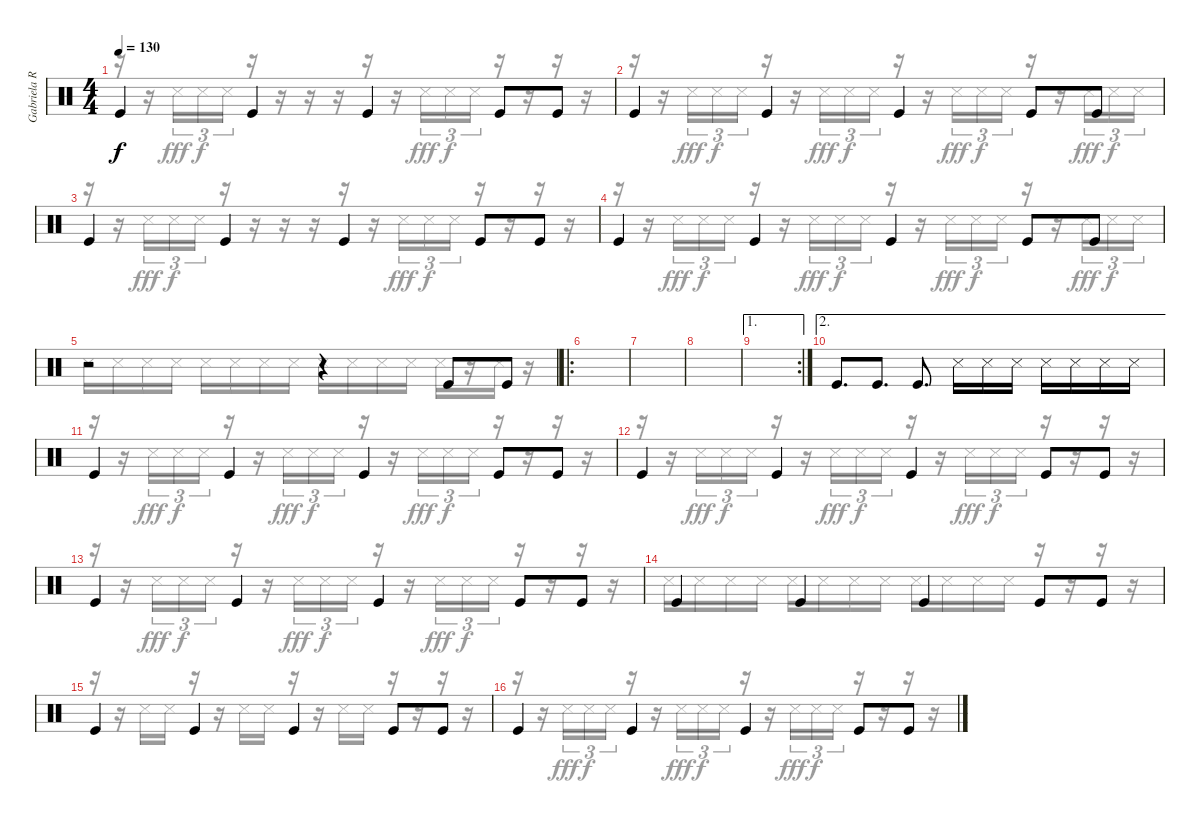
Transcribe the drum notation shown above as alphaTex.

\track ("Gabriela Rythmics" "Gabriela R") {instrument percussion}
\staff {score}
\articulation defaults
\voice
\ts (4 4)
\tempo 130
\clef neutral
\ks c "Kick (hit)".4{dy f} "Kick (hit)".4 "Kick (hit)".4 "Kick (hit)".8 "Kick (hit)".8
|
"Kick (hit)".4 "Kick (hit)".4 "Kick (hit)".4 "Kick (hit)".8 "Kick (hit)".8 |
"Kick (hit)".4 "Kick (hit)".4 "Kick (hit)".4 "Kick (hit)".8 "Kick (hit)".8 |
"Kick (hit)".4 "Kick (hit)".4 "Kick (hit)".4 "Kick (hit)".8 "Kick (hit)".8 |
r.2 r.4 "Kick (hit)".8 "Kick (hit)".8 |
\ro
|
|
|
\ae 1
\rc 2
|
\ae 2 "Kick (hit)".8{d} "Kick (hit)".8{d} "Kick (hit)".8{d} "Snare (side stick) 3".16 "Snare (side stick) 3".16 "Snare (side stick) 3".16 "Snare (side stick) 3".16 "Snare (side stick) 3".16 "Snare (side stick) 3".16 "Snare (side stick) 3".16
|
"Kick (hit)".4 "Kick (hit)".4 "Kick (hit)".4 "Kick (hit)".8 "Kick (hit)".8 |
"Kick (hit)".4 "Kick (hit)".4 "Kick (hit)".4 "Kick (hit)".8 "Kick (hit)".8 |
"Kick (hit)".4 "Kick (hit)".4 "Kick (hit)".4 "Kick (hit)".8 "Kick (hit)".8 |
"Kick (hit)".4 "Kick (hit)".4 "Kick (hit)".4 "Kick (hit)".8 "Kick (hit)".8 |
"Kick (hit)".4 "Kick (hit)".4 "Kick (hit)".4 "Kick (hit)".8 "Kick (hit)".8 |
"Kick (hit)".4 "Kick (hit)".4 "Kick (hit)".4 "Kick (hit)".8 "Kick (hit)".8
\voice
\clef neutral
\ottava regular
\simile none
\ks c
r.16{dy f} r.16 "Snare (side stick) 3".16{tu (3 2) dy fff} "Snare (side stick) 3".16{tu (3 2) dy f} "Snare (side stick) 3".16{tu (3 2)} r.16 r.16 r.16 r.16 r.16 r.16 "Snare (side stick) 3".16{tu (3 2) dy fff} "Snare (side stick) 3".16{tu (3 2) dy f} "Snare (side stick) 3".16{tu (3 2)} r.16 r.16 r.16 r.16 |
r.16 r.16 "Snare (side stick) 3".16{tu (3 2) dy fff} "Snare (side stick) 3".16{tu (3 2) dy f} "Snare (side stick) 3".16{tu (3 2)} r.16 r.16 "Snare (side stick) 3".16{tu (3 2) dy fff} "Snare (side stick) 3".16{tu (3 2) dy f} "Snare (side stick) 3".16{tu (3 2)} r.16 r.16 "Snare (side stick) 3".16{tu (3 2) dy fff} "Snare (side stick) 3".16{tu (3 2) dy f} "Snare (side stick) 3".16{tu (3 2)} r.16 r.16 "Snare (side stick) 3".16{tu (3 2) dy fff} "Snare (side stick) 3".16{tu (3 2) dy f} "Snare (side stick) 3".16{tu (3 2)} |
r.16 r.16 "Snare (side stick) 3".16{tu (3 2) dy fff} "Snare (side stick) 3".16{tu (3 2) dy f} "Snare (side stick) 3".16{tu (3 2)} r.16 r.16 r.16 r.16 r.16 r.16 "Snare (side stick) 3".16{tu (3 2) dy fff} "Snare (side stick) 3".16{tu (3 2) dy f} "Snare (side stick) 3".16{tu (3 2)} r.16 r.16 r.16 r.16 |
r.16 r.16 "Snare (side stick) 3".16{tu (3 2) dy fff} "Snare (side stick) 3".16{tu (3 2) dy f} "Snare (side stick) 3".16{tu (3 2)} r.16 r.16 "Snare (side stick) 3".16{tu (3 2) dy fff} "Snare (side stick) 3".16{tu (3 2) dy f} "Snare (side stick) 3".16{tu (3 2)} r.16 r.16 "Snare (side stick) 3".16{tu (3 2) dy fff} "Snare (side stick) 3".16{tu (3 2) dy f} "Snare (side stick) 3".16{tu (3 2)} r.16 r.16 "Snare (side stick) 3".16{tu (3 2) dy fff} "Snare (side stick) 3".16{tu (3 2) dy f} "Snare (side stick) 3".16{tu (3 2)} |
"Snare (side stick) 3".16 "Snare (side stick) 3".16 "Snare (side stick) 3".16 "Snare (side stick) 3".16 "Snare (side stick) 3".16 "Snare (side stick) 3".16 "Snare (side stick) 3".16 "Snare (side stick) 3".16 "Snare (side stick) 3".16 "Snare (side stick) 3".16 "Snare (side stick) 3".16 "Snare (side stick) 3".16 "Snare (side stick) 3".16 r.16 "Snare (side stick) 3".16 r.16 |
|
|
|
|
|
r.16 r.16 "Snare (side stick) 3".16{tu (3 2) dy fff} "Snare (side stick) 3".16{tu (3 2) dy f} "Snare (side stick) 3".16{tu (3 2)} r.16 r.16 "Snare (side stick) 3".16{tu (3 2) dy fff} "Snare (side stick) 3".16{tu (3 2) dy f} "Snare (side stick) 3".16{tu (3 2)} r.16 r.16 "Snare (side stick) 3".16{tu (3 2) dy fff} "Snare (side stick) 3".16{tu (3 2) dy f} "Snare (side stick) 3".16{tu (3 2)} r.16 r.16 r.16 r.16 |
r.16 r.16 "Snare (side stick) 3".16{tu (3 2) dy fff} "Snare (side stick) 3".16{tu (3 2) dy f} "Snare (side stick) 3".16{tu (3 2)} r.16 r.16 "Snare (side stick) 3".16{tu (3 2) dy fff} "Snare (side stick) 3".16{tu (3 2) dy f} "Snare (side stick) 3".16{tu (3 2)} r.16 r.16 "Snare (side stick) 3".16{tu (3 2) dy fff} "Snare (side stick) 3".16{tu (3 2) dy f} "Snare (side stick) 3".16{tu (3 2)} r.16 r.16 r.16 r.16 |
r.16 r.16 "Snare (side stick) 3".16{tu (3 2) dy fff} "Snare (side stick) 3".16{tu (3 2) dy f} "Snare (side stick) 3".16{tu (3 2)} r.16 r.16 "Snare (side stick) 3".16{tu (3 2) dy fff} "Snare (side stick) 3".16{tu (3 2) dy f} "Snare (side stick) 3".16{tu (3 2)} r.16 r.16 "Snare (side stick) 3".16{tu (3 2) dy fff} "Snare (side stick) 3".16{tu (3 2) dy f} "Snare (side stick) 3".16{tu (3 2)} r.16 r.16 r.16 r.16 |
"Snare (side stick) 3".16 "Snare (side stick) 3".16 "Snare (side stick) 3".16 "Snare (side stick) 3".16 "Snare (side stick) 3".16 "Snare (side stick) 3".16 "Snare (side stick) 3".16 "Snare (side stick) 3".16 "Snare (side stick) 3".16 "Snare (side stick) 3".16 "Snare (side stick) 3".16 "Snare (side stick) 3".16 r.16 r.16 r.16 r.16 |
r.16 r.16 "Snare (side stick) 3".16 "Snare (side stick) 3".16 r.16 r.16 "Snare (side stick) 3".16 "Snare (side stick) 3".16 r.16 r.16 "Snare (side stick) 3".16 "Snare (side stick) 3".16 r.16 r.16 r.16 r.16 |
r.16 r.16 "Snare (side stick) 3".16{tu (3 2) dy fff} "Snare (side stick) 3".16{tu (3 2) dy f} "Snare (side stick) 3".16{tu (3 2)} r.16 r.16 "Snare (side stick) 3".16{tu (3 2) dy fff} "Snare (side stick) 3".16{tu (3 2) dy f} "Snare (side stick) 3".16{tu (3 2)} r.16 r.16 "Snare (side stick) 3".16{tu (3 2) dy fff} "Snare (side stick) 3".16{tu (3 2) dy f} "Snare (side stick) 3".16{tu (3 2)} r.16 r.16 r.16 r.16
